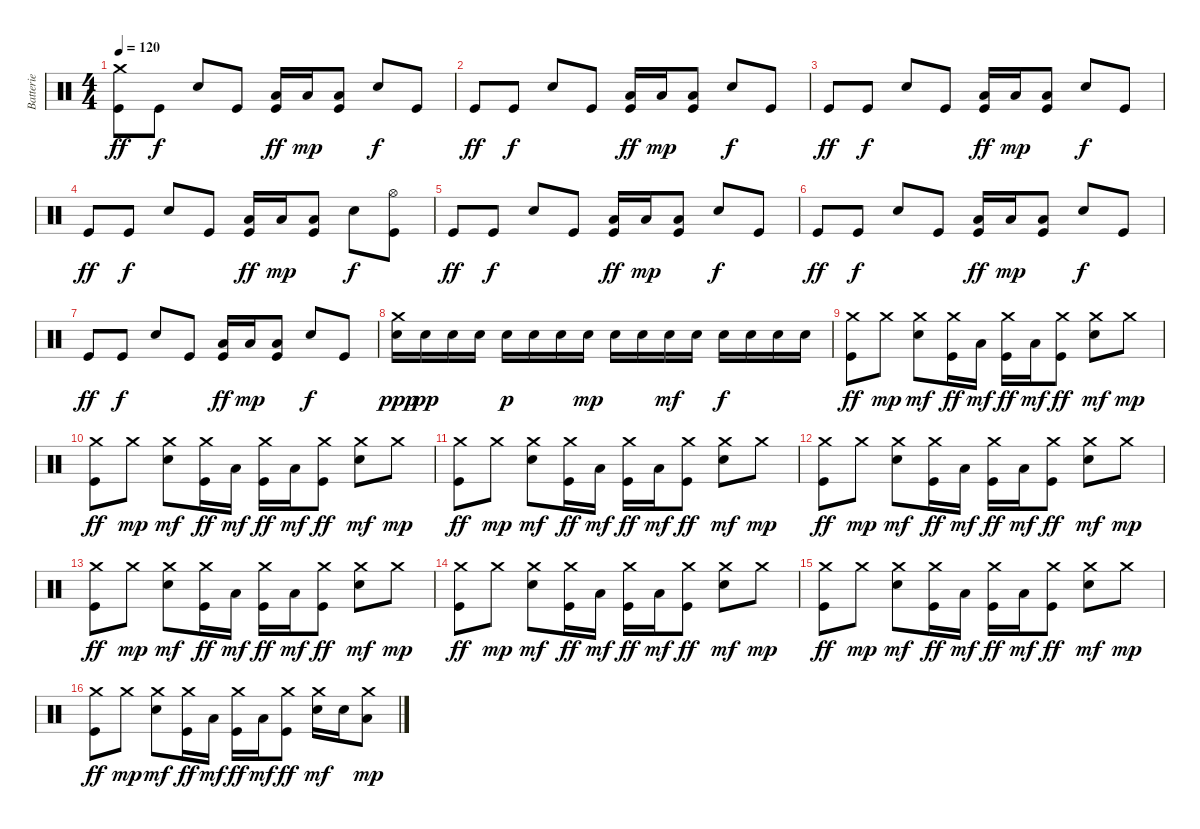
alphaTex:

\track ("Batterie" "Batterie") {instrument percussion}
\staff {score}
\articulation defaults
\ts (4 4)
\tempo 120
\clef neutral
\ks c
("Crash medium (hit)" "Kick (hit)").8{dy ff} "Kick (hit)".8{dy f} "Snare (hit) 2".8 "Kick (hit)".8 ("Low Tom (hit)" "Kick (hit)").16{dy ff} "Low Tom (hit)".16{dy mp} ("Low Tom (hit)" "Kick (hit)").8 "Snare (hit) 2".8{dy f} "Kick (hit)".8 |
"Kick (hit)".8{dy ff} "Kick (hit)".8{dy f} "Snare (hit) 2".8 "Kick (hit)".8 ("Low Tom (hit)" "Kick (hit)").16{dy ff} "Low Tom (hit)".16{dy mp} ("Low Tom (hit)" "Kick (hit)").8 "Snare (hit) 2".8{dy f} "Kick (hit)".8 |
"Kick (hit)".8{dy ff} "Kick (hit)".8{dy f} "Snare (hit) 2".8 "Kick (hit)".8 ("Low Tom (hit)" "Kick (hit)").16{dy ff} "Low Tom (hit)".16{dy mp} ("Low Tom (hit)" "Kick (hit)").8 "Snare (hit) 2".8{dy f} "Kick (hit)".8 |
"Kick (hit)".8{dy ff} "Kick (hit)".8{dy f} "Snare (hit) 2".8 "Kick (hit)".8 ("Low Tom (hit)" "Kick (hit)").16{dy ff} "Low Tom (hit)".16{dy mp} ("Low Tom (hit)" "Kick (hit)").8 "Snare (hit) 2".8{dy f} ("Hi-Hat (open)" "Kick (hit)").8 |
"Kick (hit)".8{dy ff} "Kick (hit)".8{dy f} "Snare (hit) 2".8 "Kick (hit)".8 ("Low Tom (hit)" "Kick (hit)").16{dy ff} "Low Tom (hit)".16{dy mp} ("Low Tom (hit)" "Kick (hit)").8 "Snare (hit) 2".8{dy f} "Kick (hit)".8 |
"Kick (hit)".8{dy ff} "Kick (hit)".8{dy f} "Snare (hit) 2".8 "Kick (hit)".8 ("Low Tom (hit)" "Kick (hit)").16{dy ff} "Low Tom (hit)".16{dy mp} ("Low Tom (hit)" "Kick (hit)").8 "Snare (hit) 2".8{dy f} "Kick (hit)".8 |
"Kick (hit)".8{dy ff} "Kick (hit)".8{dy f} "Snare (hit) 2".8 "Kick (hit)".8 ("Low Tom (hit)" "Kick (hit)").16{dy ff} "Low Tom (hit)".16{dy mp} ("Low Tom (hit)" "Kick (hit)").8 "Snare (hit) 2".8{dy f} "Kick (hit)".8 |
("Crash medium (hit)" "Snare (hit) 2").16{dy ppp} "Snare (hit) 2".16{dy pp} "Snare (hit) 2".16 "Snare (hit) 2".16 "Snare (hit) 2".16{dy p} "Snare (hit) 2".16 "Snare (hit) 2".16 "Snare (hit) 2".16{dy mp} "Snare (hit) 2".16 "Snare (hit) 2".16 "Snare (hit) 2".16{dy mf} "Snare (hit) 2".16 "Snare (hit) 2".16{dy f} "Snare (hit) 2".16 "Snare (hit) 2".16 "Snare (hit) 2".16 |
("Crash medium (hit)" "Kick (hit)").8{dy ff} "Crash medium (hit)".8{dy mp} ("Crash medium (hit)" "Snare (hit) 2").8{dy mf} ("Crash medium (hit)" "Kick (hit)").16{dy ff} "Low Tom (hit)".16{dy mf} ("Crash medium (hit)" "Kick (hit)").16{dy ff} "Low Tom (hit)".16{dy mf} ("Crash medium (hit)" "Kick (hit)").8{dy ff} ("Crash medium (hit)" "Snare (hit) 2").8{dy mf} "Crash medium (hit)".8{dy mp} |
("Crash medium (hit)" "Kick (hit)").8{dy ff} "Crash medium (hit)".8{dy mp} ("Crash medium (hit)" "Snare (hit) 2").8{dy mf} ("Crash medium (hit)" "Kick (hit)").16{dy ff} "Low Tom (hit)".16{dy mf} ("Crash medium (hit)" "Kick (hit)").16{dy ff} "Low Tom (hit)".16{dy mf} ("Crash medium (hit)" "Kick (hit)").8{dy ff} ("Crash medium (hit)" "Snare (hit) 2").8{dy mf} "Crash medium (hit)".8{dy mp} |
("Crash medium (hit)" "Kick (hit)").8{dy ff} "Crash medium (hit)".8{dy mp} ("Crash medium (hit)" "Snare (hit) 2").8{dy mf} ("Crash medium (hit)" "Kick (hit)").16{dy ff} "Low Tom (hit)".16{dy mf} ("Crash medium (hit)" "Kick (hit)").16{dy ff} "Low Tom (hit)".16{dy mf} ("Crash medium (hit)" "Kick (hit)").8{dy ff} ("Crash medium (hit)" "Snare (hit) 2").8{dy mf} "Crash medium (hit)".8{dy mp} |
("Crash medium (hit)" "Kick (hit)").8{dy ff} "Crash medium (hit)".8{dy mp} ("Crash medium (hit)" "Snare (hit) 2").8{dy mf} ("Crash medium (hit)" "Kick (hit)").16{dy ff} "Low Tom (hit)".16{dy mf} ("Crash medium (hit)" "Kick (hit)").16{dy ff} "Low Tom (hit)".16{dy mf} ("Crash medium (hit)" "Kick (hit)").8{dy ff} ("Crash medium (hit)" "Snare (hit) 2").8{dy mf} "Crash medium (hit)".8{dy mp} |
("Crash medium (hit)" "Kick (hit)").8{dy ff} "Crash medium (hit)".8{dy mp} ("Crash medium (hit)" "Snare (hit) 2").8{dy mf} ("Crash medium (hit)" "Kick (hit)").16{dy ff} "Low Tom (hit)".16{dy mf} ("Crash medium (hit)" "Kick (hit)").16{dy ff} "Low Tom (hit)".16{dy mf} ("Crash medium (hit)" "Kick (hit)").8{dy ff} ("Crash medium (hit)" "Snare (hit) 2").8{dy mf} "Crash medium (hit)".8{dy mp} |
("Crash medium (hit)" "Kick (hit)").8{dy ff} "Crash medium (hit)".8{dy mp} ("Crash medium (hit)" "Snare (hit) 2").8{dy mf} ("Crash medium (hit)" "Kick (hit)").16{dy ff} "Low Tom (hit)".16{dy mf} ("Crash medium (hit)" "Kick (hit)").16{dy ff} "Low Tom (hit)".16{dy mf} ("Crash medium (hit)" "Kick (hit)").8{dy ff} ("Crash medium (hit)" "Snare (hit) 2").8{dy mf} "Crash medium (hit)".8{dy mp} |
("Crash medium (hit)" "Kick (hit)").8{dy ff} "Crash medium (hit)".8{dy mp} ("Crash medium (hit)" "Snare (hit) 2").8{dy mf} ("Crash medium (hit)" "Kick (hit)").16{dy ff} "Low Tom (hit)".16{dy mf} ("Crash medium (hit)" "Kick (hit)").16{dy ff} "Low Tom (hit)".16{dy mf} ("Crash medium (hit)" "Kick (hit)").8{dy ff} ("Crash medium (hit)" "Snare (hit) 2").8{dy mf} "Crash medium (hit)".8{dy mp} |
("Crash medium (hit)" "Kick (hit)").8{dy ff} "Crash medium (hit)".8{dy mp} ("Crash medium (hit)" "Snare (hit) 2").8{dy mf} ("Crash medium (hit)" "Kick (hit)").16{dy ff} "Low Tom (hit)".16{dy mf} ("Crash medium (hit)" "Kick (hit)").16{dy ff} "Low Tom (hit)".16{dy mf} ("Crash medium (hit)" "Kick (hit)").8{dy ff} ("Crash medium (hit)" "Snare (hit) 2").16{dy mf} "Snare (hit) 2".16 ("Crash medium (hit)" "Low Tom (hit)").8{dy mp}
